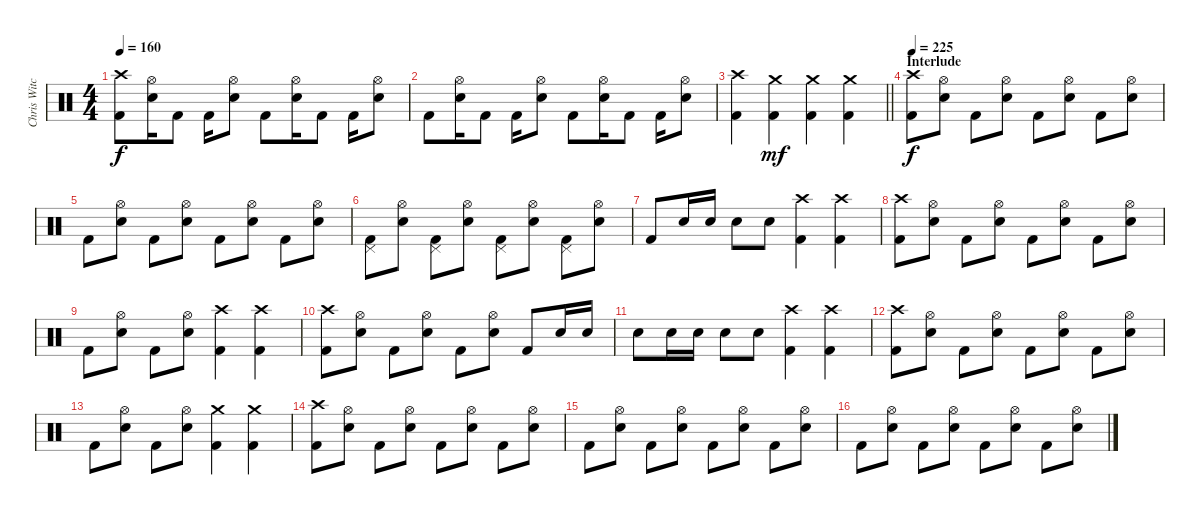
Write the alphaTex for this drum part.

\track ("Chris Witchunter" "Chris Witc") {instrument percussion}
\staff {score}
\articulation defaults
\ts (4 4)
\tempo 160
\clef neutral
\ks c
("Crash high (hit)" "Kick (hit) 2").8{dy f} ("Hi-Hat (open)" "Snare (hit) 2").16 "Kick (hit) 2".8 "Kick (hit) 2".16 ("Hi-Hat (open)" "Snare (hit) 2").8 "Kick (hit) 2".8 ("Hi-Hat (open)" "Snare (hit) 2").16 "Kick (hit) 2".8 "Kick (hit) 2".16 ("Hi-Hat (open)" "Snare (hit) 2").8 |
"Kick (hit) 2".8 ("Hi-Hat (open)" "Snare (hit) 2").16 "Kick (hit) 2".8 "Kick (hit) 2".16 ("Hi-Hat (open)" "Snare (hit) 2").8 "Kick (hit) 2".8 ("Hi-Hat (open)" "Snare (hit) 2").16 "Kick (hit) 2".8 "Kick (hit) 2".16 ("Hi-Hat (open)" "Snare (hit) 2").8 |
\barLineRight lightlight
("Crash high (hit)" "Kick (hit) 2").4 ("Crash medium (hit)" "Kick (hit) 2").4{dy mf} ("Crash medium (hit)" "Kick (hit) 2").4 ("Crash medium (hit)" "Kick (hit) 2").4 |
\section ("" "Interlude")
\tempo 225
("Crash high (hit)" "Kick (hit) 2").8{dy f} ("Hi-Hat (open)" "Snare (hit) 2").8 "Kick (hit) 2".8 ("Hi-Hat (open)" "Snare (hit) 2").8 "Kick (hit) 2".8 ("Hi-Hat (open)" "Snare (hit) 2").8 "Kick (hit) 2".8 ("Hi-Hat (open)" "Snare (hit) 2").8 |
"Kick (hit) 2".8 ("Hi-Hat (open)" "Snare (hit) 2").8 "Kick (hit) 2".8 ("Hi-Hat (open)" "Snare (hit) 2").8 "Kick (hit) 2".8 ("Hi-Hat (open)" "Snare (hit) 2").8 "Kick (hit) 2".8 ("Hi-Hat (open)" "Snare (hit) 2").8 |
("Pedal Hi-Hat (hit)" "Kick (hit) 2").8 ("Hi-Hat (open)" "Snare (hit) 2").8 ("Pedal Hi-Hat (hit)" "Kick (hit) 2").8 ("Hi-Hat (open)" "Snare (hit) 2").8 ("Pedal Hi-Hat (hit)" "Kick (hit) 2").8 ("Hi-Hat (open)" "Snare (hit) 2").8 ("Pedal Hi-Hat (hit)" "Kick (hit) 2").8 ("Hi-Hat (open)" "Snare (hit) 2").8 |
"Kick (hit) 2".8 "Snare (hit) 2".16 "Snare (hit) 2".16 "Snare (hit) 2".8 "Snare (hit) 2".8 ("Crash high (hit)" "Kick (hit) 2").4 ("Crash high (hit)" "Kick (hit) 2").4 |
("Crash high (hit)" "Kick (hit) 2").8 ("Hi-Hat (open)" "Snare (hit) 2").8 "Kick (hit) 2".8 ("Hi-Hat (open)" "Snare (hit) 2").8 "Kick (hit) 2".8 ("Hi-Hat (open)" "Snare (hit) 2").8 "Kick (hit) 2".8 ("Hi-Hat (open)" "Snare (hit) 2").8 |
"Kick (hit) 2".8 ("Hi-Hat (open)" "Snare (hit) 2").8 "Kick (hit) 2".8 ("Hi-Hat (open)" "Snare (hit) 2").8 ("Crash high (hit)" "Kick (hit) 2").4 ("Crash high (hit)" "Kick (hit) 2").4 |
("Crash high (hit)" "Kick (hit) 2").8 ("Hi-Hat (open)" "Snare (hit) 2").8 "Kick (hit) 2".8 ("Hi-Hat (open)" "Snare (hit) 2").8 "Kick (hit) 2".8 ("Hi-Hat (open)" "Snare (hit) 2").8 "Kick (hit) 2".8 "Snare (hit) 2".16 "Snare (hit) 2".16 |
"Snare (hit) 2".8 "Snare (hit) 2".16 "Snare (hit) 2".16 "Snare (hit) 2".8 "Snare (hit) 2".8 ("Crash high (hit)" "Kick (hit) 2").4 ("Crash high (hit)" "Kick (hit) 2").4 |
("Crash high (hit)" "Kick (hit) 2").8 ("Hi-Hat (open)" "Snare (hit) 2").8 "Kick (hit) 2".8 ("Hi-Hat (open)" "Snare (hit) 2").8 "Kick (hit) 2".8 ("Hi-Hat (open)" "Snare (hit) 2").8 "Kick (hit) 2".8 ("Hi-Hat (open)" "Snare (hit) 2").8 |
"Kick (hit) 2".8 ("Hi-Hat (open)" "Snare (hit) 2").8 "Kick (hit) 2".8 ("Hi-Hat (open)" "Snare (hit) 2").8 ("Crash medium (hit)" "Kick (hit) 2").4 ("Crash medium (hit)" "Kick (hit) 2").4 |
("Crash high (hit)" "Kick (hit) 2").8 ("Hi-Hat (open)" "Snare (hit) 2").8 "Kick (hit) 2".8 ("Hi-Hat (open)" "Snare (hit) 2").8 "Kick (hit) 2".8 ("Hi-Hat (open)" "Snare (hit) 2").8 "Kick (hit) 2".8 ("Hi-Hat (open)" "Snare (hit) 2").8 |
"Kick (hit) 2".8 ("Hi-Hat (open)" "Snare (hit) 2").8 "Kick (hit) 2".8 ("Hi-Hat (open)" "Snare (hit) 2").8 "Kick (hit) 2".8 ("Hi-Hat (open)" "Snare (hit) 2").8 "Kick (hit) 2".8 ("Hi-Hat (open)" "Snare (hit) 2").8 |
"Kick (hit) 2".8 ("Hi-Hat (open)" "Snare (hit) 2").8 "Kick (hit) 2".8 ("Hi-Hat (open)" "Snare (hit) 2").8 "Kick (hit) 2".8 ("Hi-Hat (open)" "Snare (hit) 2").8 "Kick (hit) 2".8 ("Hi-Hat (open)" "Snare (hit) 2").8
